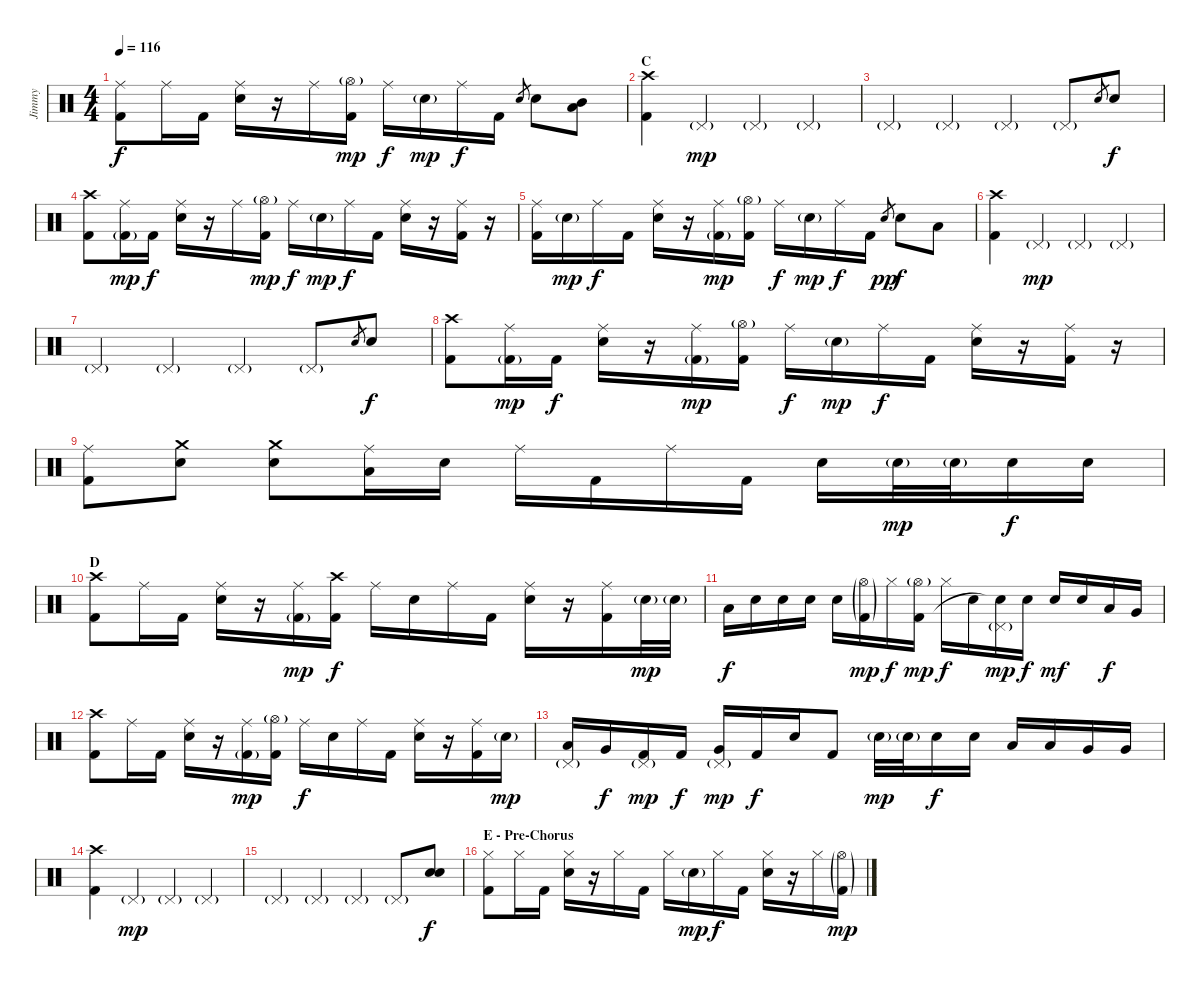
\track ("Jimmy" "Jimmy") {instrument percussion}
\staff {score}
\articulation defaults
\ts (4 4)
\tempo 116
\clef neutral
\ks c
("Ride (middle)" "Kick (hit) 2").8{dy f} "Ride (middle)".16 "Kick (hit) 2".16 ("Ride (middle)" "Electric Snare (hit)").16 r.16 "Ride (middle)".16 ("Hi-Hat (open)"{g} "Kick (hit) 2").16{dy mp} "Ride (middle)".16{dy f} "Electric Snare (hit)"{g}.16{dy mp} "Ride (middle)".16{dy f} "Kick (hit) 2".16 "Electric Snare (hit)".8{gr} "Electric Snare (hit)".8 ("Mid Tom (hit)" "Low Tom (hit)").8 |
\section ("" "C")
("Crash high (hit)" "Kick (hit) 2").4 "Pedal Hi-Hat (hit)"{g}.4{dy mp} "Pedal Hi-Hat (hit)"{g}.4 "Pedal Hi-Hat (hit)"{g}.4 |
"Pedal Hi-Hat (hit)"{g}.4 "Pedal Hi-Hat (hit)"{g}.4 "Pedal Hi-Hat (hit)"{g}.4 "Pedal Hi-Hat (hit)"{g}.8 "Electric Snare (hit)".8{gr} "Electric Snare (hit)".8{dy f} |
("Crash high (hit)" "Kick (hit) 2").8 ("Ride (middle)" "Kick (hit) 2"{g}).16{dy mp} "Kick (hit) 2".16{dy f} ("Ride (middle)" "Electric Snare (hit)").16 r.16 "Ride (middle)".16 ("Hi-Hat (open)"{g} "Kick (hit) 2").16{dy mp} "Ride (middle)".16{dy f} "Electric Snare (hit)"{g}.16{dy mp} "Ride (middle)".16{dy f} "Kick (hit) 2".16 ("Ride (middle)" "Electric Snare (hit)").16 r.16 ("Ride (middle)" "Kick (hit) 2").16 r.16 |
("Ride (middle)" "Kick (hit) 2").16 "Electric Snare (hit)"{g}.16{dy mp} "Ride (middle)".16{dy f} "Kick (hit) 2".16 ("Ride (middle)" "Electric Snare (hit)").16 r.16 ("Ride (middle)" "Kick (hit) 2"{g}).16{dy mp} ("Hi-Hat (open)"{g} "Kick (hit) 2").16 "Ride (middle)".16{dy f} "Electric Snare (hit)"{g}.16{dy mp} "Ride (middle)".16{dy f} "Kick (hit) 2".16 "Electric Snare (hit)".8{gr dy pp} "Electric Snare (hit)".8{dy f} "Low Tom (hit)".8 |
("Crash high (hit)" "Kick (hit) 2").4 "Pedal Hi-Hat (hit)"{g}.4{dy mp} "Pedal Hi-Hat (hit)"{g}.4 "Pedal Hi-Hat (hit)"{g}.4 |
"Pedal Hi-Hat (hit)"{g}.4 "Pedal Hi-Hat (hit)"{g}.4 "Pedal Hi-Hat (hit)"{g}.4 "Pedal Hi-Hat (hit)"{g}.8 "Electric Snare (hit)".8{gr} "Electric Snare (hit)".8{dy f} |
("Crash high (hit)" "Kick (hit) 2").8 ("Ride (middle)" "Kick (hit) 2"{g}).16{dy mp} "Kick (hit) 2".16{dy f} ("Ride (middle)" "Electric Snare (hit)").16 r.16 ("Ride (middle)" "Kick (hit) 2"{g}).16{dy mp} ("Hi-Hat (open)"{g} "Kick (hit) 2").16 "Ride (middle)".16{dy f} "Electric Snare (hit)"{g}.16{dy mp} "Ride (middle)".16{dy f} "Kick (hit) 2".16 ("Ride (middle)" "Electric Snare (hit)").16 r.16 ("Ride (middle)" "Kick (hit) 2").16 r.16 |
("Ride (middle)" "Kick (hit) 2").8 ("Crash medium (hit)" "Electric Snare (hit)").8 ("Crash medium (hit)" "Electric Snare (hit)").8 ("Ride (middle)" "Low Tom (hit)").16 "Electric Snare (hit)".16 "Ride (middle)".16 "Kick (hit) 2".16 "Ride (middle)".16 "Kick (hit) 2".16 "Electric Snare (hit)".16 "Electric Snare (hit)"{g}.32{dy mp} "Electric Snare (hit)"{g}.32 "Electric Snare (hit)".16{dy f} "Electric Snare (hit)".16 |
\section ("" "D")
("Crash high (hit)" "Kick (hit) 2").8 "Ride (middle)".16 "Kick (hit) 2".16 ("Ride (middle)" "Electric Snare (hit)").16 r.16 ("Ride (middle)" "Kick (hit) 2"{g}).16{dy mp} ("Crash high (hit)" "Kick (hit) 2").16{dy f} "Ride (middle)".16 "Electric Snare (hit)".16 "Ride (middle)".16 "Kick (hit) 2".16 ("Ride (middle)" "Electric Snare (hit)").16 r.16 ("Ride (middle)" "Kick (hit) 2").16 "Electric Snare (hit)"{g}.32{dy mp} "Electric Snare (hit)"{g}.32 |
"Low Tom (hit)".16{dy f} "Electric Snare (hit)".16 "Electric Snare (hit)".16 "Electric Snare (hit)".16 "Electric Snare (hit)".16 ("Hi-Hat (open)"{g} "Kick (hit) 2"{g}).16{dy mp} "Hi-Hat (closed)".16{dy f} ("Hi-Hat (open)"{g} "Kick (hit) 2").16{dy mp} "Hi-Hat (closed)".16{dy f} "Electric Snare (hit)".16 ("Pedal Hi-Hat (hit)"{g} "Snare (hit)"{t}).16{dy mp} "Electric Snare (hit)".16{dy f} "Electric Snare (hit)".16{dy mf} "Electric Snare (hit)".16 "Low Tom (hit)".16{dy f} "Very Low Tom (hit)".16 |
("Crash high (hit)" "Kick (hit) 2").8 "Ride (middle)".16 "Kick (hit) 2".16 ("Ride (middle)" "Electric Snare (hit)").16 r.16 ("Ride (middle)" "Kick (hit) 2"{g}).16{dy mp} ("Hi-Hat (open)"{g} "Kick (hit) 2").16 "Ride (middle)".16{dy f} "Electric Snare (hit)".16 "Ride (middle)".16 "Kick (hit) 2".16 ("Ride (middle)" "Electric Snare (hit)").16 r.16 ("Ride (middle)" "Kick (hit) 2").16 "Electric Snare (hit)"{g}.16{dy mp} |
("Pedal Hi-Hat (hit)"{g} "Low Tom (hit)").16 "Very Low Tom (hit)".16{dy f} ("Pedal Hi-Hat (hit)"{g} "Kick (hit) 2").16{dy mp} "Kick (hit) 2".16{dy f} ("Pedal Hi-Hat (hit)"{g} "Very Low Tom (hit)").16{dy mp} "Kick (hit) 2".16{dy f} "Electric Snare (hit)".16 "Kick (hit) 2".8 "Electric Snare (hit)"{g}.32{dy mp} "Electric Snare (hit)"{g}.32 "Electric Snare (hit)".16{dy f} "Electric Snare (hit)".16 "Low Tom (hit)".16 "Low Tom (hit)".16 "Very Low Tom (hit)".16 "Very Low Tom (hit)".16 |
("Crash high (hit)" "Kick (hit) 2").4 "Pedal Hi-Hat (hit)"{g}.4{dy mp} "Pedal Hi-Hat (hit)"{g}.4 "Pedal Hi-Hat (hit)"{g}.4 |
"Pedal Hi-Hat (hit)"{g}.4 "Pedal Hi-Hat (hit)"{g}.4 "Pedal Hi-Hat (hit)"{g}.4 "Pedal Hi-Hat (hit)"{g}.8 ("Electric Snare (hit)" "Electric Snare (hit)").8{dy f} |
\section ("" "E - Pre-Chorus")
("Hi-Hat (closed)" "Kick (hit) 2").8 "Hi-Hat (closed)".16 "Kick (hit) 2".16 ("Hi-Hat (closed)" "Electric Snare (hit)").16 r.16 "Hi-Hat (closed)".16 "Kick (hit) 2".16 "Hi-Hat (closed)".16 "Electric Snare (hit)"{g}.16{dy mp} "Hi-Hat (closed)".16{dy f} "Kick (hit) 2".16 ("Hi-Hat (closed)" "Electric Snare (hit)").16 r.16 "Hi-Hat (closed)".16 ("Hi-Hat (open)"{g} "Kick (hit) 2"{g}).16{dy mp}
